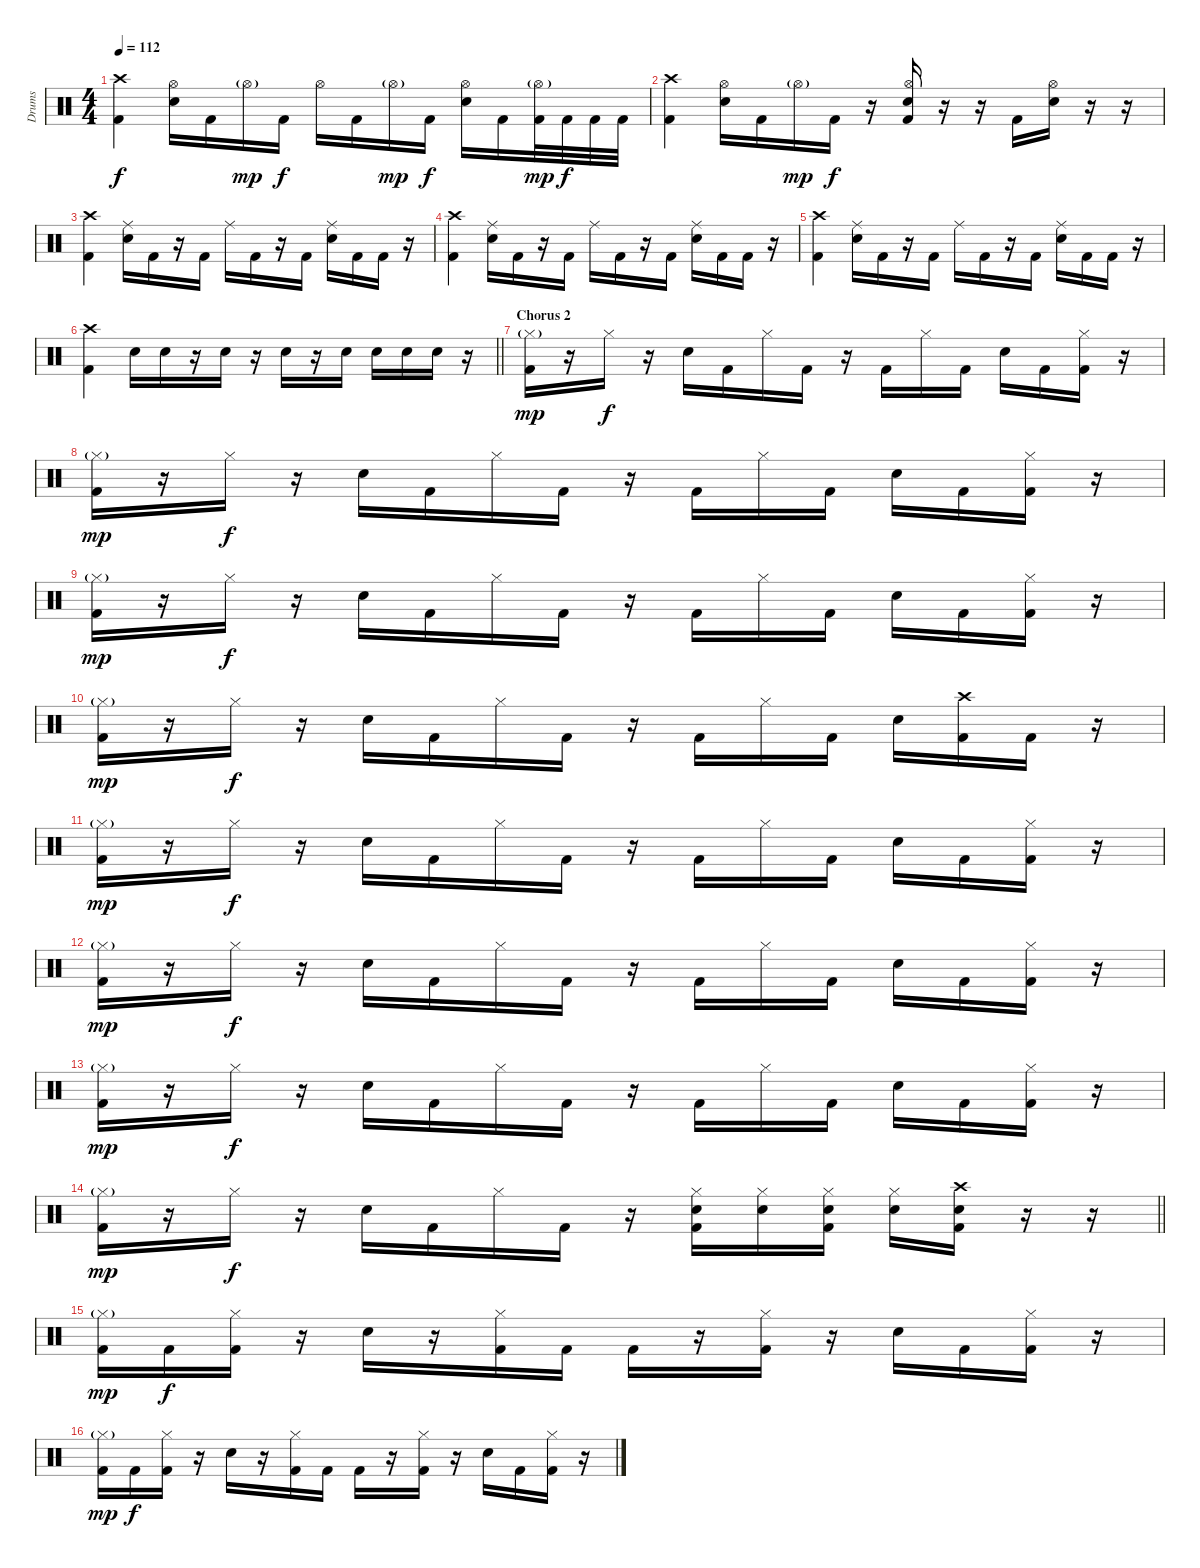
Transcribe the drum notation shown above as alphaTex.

\track ("Drums" "Drums") {instrument percussion}
\staff {score}
\articulation defaults
\ts (4 4)
\tempo 112
\clef neutral
\ks c
("Crash high (hit)" "Kick (hit) 2").4{dy f} ("Hi-Hat (open)" "Electric Snare (hit)").16 "Kick (hit) 2".16 "Hi-Hat (open)"{g}.16{dy mp} "Kick (hit) 2".16{dy f} "Hi-Hat (open)".16 "Kick (hit) 2".16 "Hi-Hat (open)"{g}.16{dy mp} "Kick (hit) 2".16{dy f} ("Hi-Hat (open)" "Electric Snare (hit)").16 "Kick (hit) 2".16 ("Hi-Hat (open)"{g} "Kick (hit) 2").32{dy mp} "Kick (hit) 2".32{dy f} "Kick (hit) 2".32 "Kick (hit) 2".32 |
("Crash high (hit)" "Kick (hit) 2").4 ("Hi-Hat (open)" "Electric Snare (hit)").16 "Kick (hit) 2".16 "Hi-Hat (open)"{g}.16{dy mp} "Kick (hit) 2".16{dy f} r.16 ("Hi-Hat (open)" "Electric Snare (hit)" "Kick (hit) 2").16 r.16 r.16 "Kick (hit) 2".16 ("Hi-Hat (open)" "Electric Snare (hit)").16 r.16 r.16 |
("Crash high (hit)" "Kick (hit) 2").4 ("Ride (middle)" "Electric Snare (hit)").16 "Kick (hit) 2".16 r.16 "Kick (hit) 2".16 "Ride (middle)".16 "Kick (hit) 2".16 r.16 "Kick (hit) 2".16 ("Ride (middle)" "Electric Snare (hit)").16 "Kick (hit) 2".16 "Kick (hit) 2".16 r.16 |
("Crash high (hit)" "Kick (hit) 2").4 ("Ride (middle)" "Electric Snare (hit)").16 "Kick (hit) 2".16 r.16 "Kick (hit) 2".16 "Ride (middle)".16 "Kick (hit) 2".16 r.16 "Kick (hit) 2".16 ("Ride (middle)" "Electric Snare (hit)").16 "Kick (hit) 2".16 "Kick (hit) 2".16 r.16 |
("Crash high (hit)" "Kick (hit) 2").4 ("Ride (middle)" "Electric Snare (hit)").16 "Kick (hit) 2".16 r.16 "Kick (hit) 2".16 "Ride (middle)".16 "Kick (hit) 2".16 r.16 "Kick (hit) 2".16 ("Ride (middle)" "Electric Snare (hit)").16 "Kick (hit) 2".16 "Kick (hit) 2".16 r.16 |
\barLineRight lightlight
("Crash high (hit)" "Kick (hit) 2").4 "Electric Snare (hit)".16 "Electric Snare (hit)".16 r.16 "Electric Snare (hit)".16 r.16 "Electric Snare (hit)".16 r.16 "Electric Snare (hit)".16 "Electric Snare (hit)".16 "Electric Snare (hit)".16 "Electric Snare (hit)".16 r.16 |
\section ("" "Chorus 2")
("Hi-Hat (closed)"{g} "Kick (hit) 2").16{dy mp} r.16 "Hi-Hat (closed)".16{dy f} r.16 "Electric Snare (hit)".16 "Kick (hit) 2".16 "Hi-Hat (closed)".16 "Kick (hit) 2".16 r.16 "Kick (hit) 2".16 "Hi-Hat (closed)".16 "Kick (hit) 2".16 "Electric Snare (hit)".16 "Kick (hit) 2".16 ("Hi-Hat (closed)" "Kick (hit) 2").16 r.16 |
("Hi-Hat (closed)"{g} "Kick (hit) 2").16{dy mp} r.16 "Hi-Hat (closed)".16{dy f} r.16 "Electric Snare (hit)".16 "Kick (hit) 2".16 "Hi-Hat (closed)".16 "Kick (hit) 2".16 r.16 "Kick (hit) 2".16 "Hi-Hat (closed)".16 "Kick (hit) 2".16 "Electric Snare (hit)".16 "Kick (hit) 2".16 ("Hi-Hat (closed)" "Kick (hit) 2").16 r.16 |
("Hi-Hat (closed)"{g} "Kick (hit) 2").16{dy mp} r.16 "Hi-Hat (closed)".16{dy f} r.16 "Electric Snare (hit)".16 "Kick (hit) 2".16 "Hi-Hat (closed)".16 "Kick (hit) 2".16 r.16 "Kick (hit) 2".16 "Hi-Hat (closed)".16 "Kick (hit) 2".16 "Electric Snare (hit)".16 "Kick (hit) 2".16 ("Hi-Hat (closed)" "Kick (hit) 2").16 r.16 |
("Hi-Hat (closed)"{g} "Kick (hit) 2").16{dy mp} r.16 "Hi-Hat (closed)".16{dy f} r.16 "Electric Snare (hit)".16 "Kick (hit) 2".16 "Hi-Hat (closed)".16 "Kick (hit) 2".16 r.16 "Kick (hit) 2".16 "Hi-Hat (closed)".16 "Kick (hit) 2".16 "Electric Snare (hit)".16 ("Crash high (hit)" "Kick (hit) 2").16 "Kick (hit) 2".16 r.16 |
("Hi-Hat (closed)"{g} "Kick (hit) 2").16{dy mp} r.16 "Hi-Hat (closed)".16{dy f} r.16 "Electric Snare (hit)".16 "Kick (hit) 2".16 "Hi-Hat (closed)".16 "Kick (hit) 2".16 r.16 "Kick (hit) 2".16 "Hi-Hat (closed)".16 "Kick (hit) 2".16 "Electric Snare (hit)".16 "Kick (hit) 2".16 ("Hi-Hat (closed)" "Kick (hit) 2").16 r.16 |
("Hi-Hat (closed)"{g} "Kick (hit) 2").16{dy mp} r.16 "Hi-Hat (closed)".16{dy f} r.16 "Electric Snare (hit)".16 "Kick (hit) 2".16 "Hi-Hat (closed)".16 "Kick (hit) 2".16 r.16 "Kick (hit) 2".16 "Hi-Hat (closed)".16 "Kick (hit) 2".16 "Electric Snare (hit)".16 "Kick (hit) 2".16 ("Hi-Hat (closed)" "Kick (hit) 2").16 r.16 |
("Hi-Hat (closed)"{g} "Kick (hit) 2").16{dy mp} r.16 "Hi-Hat (closed)".16{dy f} r.16 "Electric Snare (hit)".16 "Kick (hit) 2".16 "Hi-Hat (closed)".16 "Kick (hit) 2".16 r.16 "Kick (hit) 2".16 "Hi-Hat (closed)".16 "Kick (hit) 2".16 "Electric Snare (hit)".16 "Kick (hit) 2".16 ("Hi-Hat (closed)" "Kick (hit) 2").16 r.16 |
\barLineRight lightlight
("Hi-Hat (closed)"{g} "Kick (hit) 2").16{dy mp} r.16 "Hi-Hat (closed)".16{dy f} r.16 "Electric Snare (hit)".16 "Kick (hit) 2".16 "Hi-Hat (closed)".16 "Kick (hit) 2".16 r.16 ("Hi-Hat (closed)" "Electric Snare (hit)" "Kick (hit) 2").16 ("Hi-Hat (closed)" "Electric Snare (hit)").16 ("Hi-Hat (closed)" "Electric Snare (hit)" "Kick (hit) 2").16 ("Hi-Hat (closed)" "Electric Snare (hit)").16 ("Crash high (hit)" "Electric Snare (hit)" "Kick (hit) 2").16 r.16 r.16 |
("Hi-Hat (closed)"{g} "Kick (hit) 2").16{dy mp} "Kick (hit) 2".16{dy f} ("Hi-Hat (closed)" "Kick (hit) 2").16 r.16 "Electric Snare (hit)".16 r.16 ("Hi-Hat (closed)" "Kick (hit) 2").16 "Kick (hit) 2".16 "Kick (hit) 2".16 r.16 ("Hi-Hat (closed)" "Kick (hit) 2").16 r.16 "Electric Snare (hit)".16 "Kick (hit) 2".16 ("Hi-Hat (closed)" "Kick (hit) 2").16 r.16 |
("Hi-Hat (closed)"{g} "Kick (hit) 2").16{dy mp} "Kick (hit) 2".16{dy f} ("Hi-Hat (closed)" "Kick (hit) 2").16 r.16 "Electric Snare (hit)".16 r.16 ("Hi-Hat (closed)" "Kick (hit) 2").16 "Kick (hit) 2".16 "Kick (hit) 2".16 r.16 ("Hi-Hat (closed)" "Kick (hit) 2").16 r.16 "Electric Snare (hit)".16 "Kick (hit) 2".16 ("Hi-Hat (closed)" "Kick (hit) 2").16 r.16
